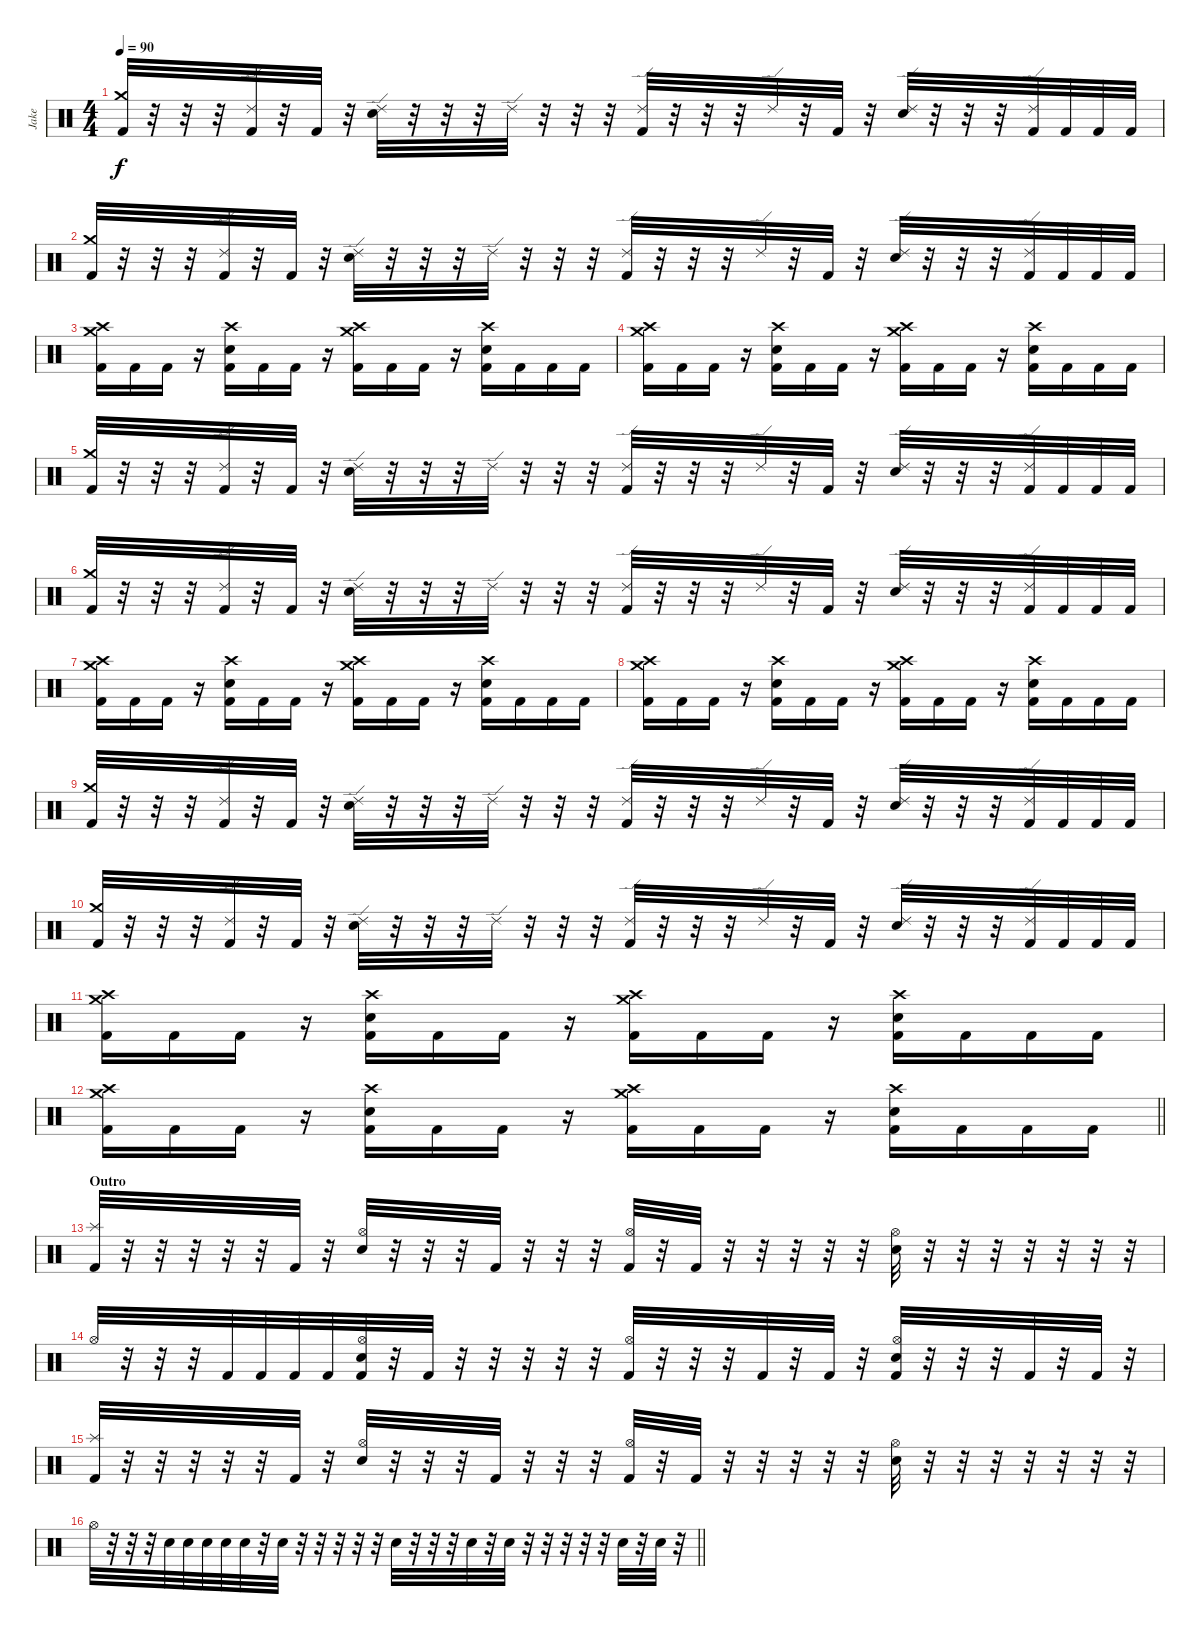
\track ("Jake" "Jake") {instrument percussion}
\staff {score}
\articulation defaults
\ts (4 4)
\tempo 90
\clef neutral
\ks c
("Crash medium (hit)" "Kick (hit) 2").32{dy f} r.32 r.32 r.32 ("Ride (edge) 2" "Kick (hit) 2").32 r.32 "Kick (hit) 2".32{beam Up} r.32 ("Ride (edge) 2" "Electric Snare (hit)").32 r.32 r.32 r.32 "Ride (edge) 2".32 r.32 r.32 r.32 ("Ride (edge) 2" "Kick (hit) 2").32 r.32 r.32 r.32 "Ride (edge) 2".32 r.32 "Kick (hit) 2".32{beam Up} r.32 ("Ride (edge) 2" "Electric Snare (hit)").32 r.32 r.32 r.32 ("Ride (edge) 2" "Kick (hit) 2").32{beam merge} "Kick (hit) 2".32{beam merge} "Kick (hit) 2".32{beam merge} "Kick (hit) 2".32 |
("Crash medium (hit)" "Kick (hit) 2").32 r.32 r.32 r.32 ("Ride (edge) 2" "Kick (hit) 2").32 r.32 "Kick (hit) 2".32{beam Up} r.32 ("Ride (edge) 2" "Electric Snare (hit)").32 r.32 r.32 r.32 "Ride (edge) 2".32 r.32 r.32 r.32 ("Ride (edge) 2" "Kick (hit) 2").32 r.32 r.32 r.32 "Ride (edge) 2".32 r.32 "Kick (hit) 2".32{beam Up} r.32 ("Ride (edge) 2" "Electric Snare (hit)").32 r.32 r.32 r.32 ("Ride (edge) 2" "Kick (hit) 2").32{beam merge} "Kick (hit) 2".32{beam merge} "Kick (hit) 2".32{beam merge} "Kick (hit) 2".32 |
("Crash medium (hit)" "Crash high (hit)" "Kick (hit) 2").16{beam merge} "Kick (hit) 2".16{beam merge} "Kick (hit) 2".16 r.16 ("Crash high (hit)" "Electric Snare (hit)" "Kick (hit) 2").16{beam merge} "Kick (hit) 2".16{beam merge} "Kick (hit) 2".16 r.16 ("Crash medium (hit)" "Crash high (hit)" "Kick (hit) 2").16{beam merge} "Kick (hit) 2".16{beam merge} "Kick (hit) 2".16 r.16 ("Crash high (hit)" "Electric Snare (hit)" "Kick (hit) 2").16{beam merge} "Kick (hit) 2".16{beam merge} "Kick (hit) 2".16{beam merge} "Kick (hit) 2".16 |
("Crash medium (hit)" "Crash high (hit)" "Kick (hit) 2").16{beam merge} "Kick (hit) 2".16{beam merge} "Kick (hit) 2".16 r.16 ("Crash high (hit)" "Electric Snare (hit)" "Kick (hit) 2").16{beam merge} "Kick (hit) 2".16{beam merge} "Kick (hit) 2".16 r.16 ("Crash medium (hit)" "Crash high (hit)" "Kick (hit) 2").16{beam merge} "Kick (hit) 2".16{beam merge} "Kick (hit) 2".16 r.16 ("Crash high (hit)" "Electric Snare (hit)" "Kick (hit) 2").16{beam merge} "Kick (hit) 2".16{beam merge} "Kick (hit) 2".16{beam merge} "Kick (hit) 2".16 |
("Crash medium (hit)" "Kick (hit) 2").32 r.32 r.32 r.32 ("Ride (edge) 2" "Kick (hit) 2").32 r.32 "Kick (hit) 2".32{beam Up} r.32 ("Ride (edge) 2" "Electric Snare (hit)").32 r.32 r.32 r.32 "Ride (edge) 2".32 r.32 r.32 r.32 ("Ride (edge) 2" "Kick (hit) 2").32 r.32 r.32 r.32 "Ride (edge) 2".32 r.32 "Kick (hit) 2".32{beam Up} r.32 ("Ride (edge) 2" "Electric Snare (hit)").32 r.32 r.32 r.32 ("Ride (edge) 2" "Kick (hit) 2").32{beam merge} "Kick (hit) 2".32{beam merge} "Kick (hit) 2".32{beam merge} "Kick (hit) 2".32 |
("Crash medium (hit)" "Kick (hit) 2").32 r.32 r.32 r.32 ("Ride (edge) 2" "Kick (hit) 2").32 r.32 "Kick (hit) 2".32{beam Up} r.32 ("Ride (edge) 2" "Electric Snare (hit)").32 r.32 r.32 r.32 "Ride (edge) 2".32 r.32 r.32 r.32 ("Ride (edge) 2" "Kick (hit) 2").32 r.32 r.32 r.32 "Ride (edge) 2".32 r.32 "Kick (hit) 2".32{beam Up} r.32 ("Ride (edge) 2" "Electric Snare (hit)").32 r.32 r.32 r.32 ("Ride (edge) 2" "Kick (hit) 2").32{beam merge} "Kick (hit) 2".32{beam merge} "Kick (hit) 2".32{beam merge} "Kick (hit) 2".32 |
("Crash medium (hit)" "Crash high (hit)" "Kick (hit) 2").16{beam merge} "Kick (hit) 2".16{beam merge} "Kick (hit) 2".16 r.16 ("Crash high (hit)" "Electric Snare (hit)" "Kick (hit) 2").16{beam merge} "Kick (hit) 2".16{beam merge} "Kick (hit) 2".16 r.16 ("Crash medium (hit)" "Crash high (hit)" "Kick (hit) 2").16{beam merge} "Kick (hit) 2".16{beam merge} "Kick (hit) 2".16 r.16 ("Crash high (hit)" "Electric Snare (hit)" "Kick (hit) 2").16{beam merge} "Kick (hit) 2".16{beam merge} "Kick (hit) 2".16{beam merge} "Kick (hit) 2".16 |
("Crash medium (hit)" "Crash high (hit)" "Kick (hit) 2").16{beam merge} "Kick (hit) 2".16{beam merge} "Kick (hit) 2".16 r.16 ("Crash high (hit)" "Electric Snare (hit)" "Kick (hit) 2").16{beam merge} "Kick (hit) 2".16{beam merge} "Kick (hit) 2".16 r.16 ("Crash medium (hit)" "Crash high (hit)" "Kick (hit) 2").16{beam merge} "Kick (hit) 2".16{beam merge} "Kick (hit) 2".16 r.16 ("Crash high (hit)" "Electric Snare (hit)" "Kick (hit) 2").16{beam merge} "Kick (hit) 2".16{beam merge} "Kick (hit) 2".16{beam merge} "Kick (hit) 2".16 |
("Crash medium (hit)" "Kick (hit) 2").32 r.32 r.32 r.32 ("Ride (edge) 2" "Kick (hit) 2").32 r.32 "Kick (hit) 2".32{beam Up} r.32 ("Ride (edge) 2" "Electric Snare (hit)").32 r.32 r.32 r.32 "Ride (edge) 2".32 r.32 r.32 r.32 ("Ride (edge) 2" "Kick (hit) 2").32 r.32 r.32 r.32 "Ride (edge) 2".32 r.32 "Kick (hit) 2".32{beam Up} r.32 ("Ride (edge) 2" "Electric Snare (hit)").32 r.32 r.32 r.32 ("Ride (edge) 2" "Kick (hit) 2").32{beam merge} "Kick (hit) 2".32{beam merge} "Kick (hit) 2".32{beam merge} "Kick (hit) 2".32 |
("Crash medium (hit)" "Kick (hit) 2").32 r.32 r.32 r.32 ("Ride (edge) 2" "Kick (hit) 2").32 r.32 "Kick (hit) 2".32{beam Up} r.32 ("Ride (edge) 2" "Electric Snare (hit)").32 r.32 r.32 r.32 "Ride (edge) 2".32 r.32 r.32 r.32 ("Ride (edge) 2" "Kick (hit) 2").32 r.32 r.32 r.32 "Ride (edge) 2".32 r.32 "Kick (hit) 2".32{beam Up} r.32 ("Ride (edge) 2" "Electric Snare (hit)").32 r.32 r.32 r.32 ("Ride (edge) 2" "Kick (hit) 2").32{beam merge} "Kick (hit) 2".32{beam merge} "Kick (hit) 2".32{beam merge} "Kick (hit) 2".32 |
("Crash medium (hit)" "Crash high (hit)" "Kick (hit) 2").16{beam merge} "Kick (hit) 2".16{beam merge} "Kick (hit) 2".16 r.16 ("Crash high (hit)" "Electric Snare (hit)" "Kick (hit) 2").16{beam merge} "Kick (hit) 2".16{beam merge} "Kick (hit) 2".16 r.16 ("Crash medium (hit)" "Crash high (hit)" "Kick (hit) 2").16{beam merge} "Kick (hit) 2".16{beam merge} "Kick (hit) 2".16 r.16 ("Crash high (hit)" "Electric Snare (hit)" "Kick (hit) 2").16{beam merge} "Kick (hit) 2".16{beam merge} "Kick (hit) 2".16{beam merge} "Kick (hit) 2".16 |
\barLineRight lightlight
("Crash medium (hit)" "Crash high (hit)" "Kick (hit) 2").16{beam merge} "Kick (hit) 2".16{beam merge} "Kick (hit) 2".16 r.16 ("Crash high (hit)" "Electric Snare (hit)" "Kick (hit) 2").16{beam merge} "Kick (hit) 2".16{beam merge} "Kick (hit) 2".16 r.16 ("Crash medium (hit)" "Crash high (hit)" "Kick (hit) 2").16{beam merge} "Kick (hit) 2".16{beam merge} "Kick (hit) 2".16 r.16 ("Crash high (hit)" "Electric Snare (hit)" "Kick (hit) 2").16{beam merge} "Kick (hit) 2".16{beam merge} "Kick (hit) 2".16{beam merge} "Kick (hit) 2".16 |
\section ("" "Outro")
("Splash (hit)" "Kick (hit) 2").32{beam Up} r.32 r.32 r.32 r.32 r.32 "Kick (hit) 2".32{beam Up} r.32 ("Hi-Hat (open)" "Electric Snare (hit)").32 r.32 r.32 r.32 "Kick (hit) 2".32{beam Up} r.32 r.32 r.32 ("Hi-Hat (open)" "Kick (hit) 2").32 r.32 "Kick (hit) 2".32{beam Up} r.32 r.32 r.32 r.32 r.32 ("Hi-Hat (open)" "Electric Snare (hit)").32 r.32 r.32 r.32 r.32 r.32 r.32 r.32 |
"Hi-Hat (open)".32 r.32 r.32 r.32 "Kick (hit) 2".32{beam Up beam merge} "Kick (hit) 2".32{beam Up beam merge} "Kick (hit) 2".32{beam Up beam merge} "Kick (hit) 2".32{beam Up beam merge} ("Hi-Hat (open)" "Electric Snare (hit)" "Kick (hit) 2").32 r.32 "Kick (hit) 2".32{beam Up} r.32 r.32 r.32 r.32 r.32 ("Hi-Hat (open)" "Kick (hit) 2").32 r.32 r.32 r.32 "Kick (hit) 2".32{beam Up} r.32 "Kick (hit) 2".32{beam Up} r.32 ("Hi-Hat (open)" "Electric Snare (hit)" "Kick (hit) 2").32 r.32 r.32 r.32 "Kick (hit) 2".32{beam Up} r.32 "Kick (hit) 2".32{beam Up} r.32 |
("Splash (hit)" "Kick (hit) 2").32{beam Up} r.32 r.32 r.32 r.32 r.32 "Kick (hit) 2".32{beam Up} r.32 ("Hi-Hat (open)" "Electric Snare (hit)").32 r.32 r.32 r.32 "Kick (hit) 2".32{beam Up} r.32 r.32 r.32 ("Hi-Hat (open)" "Kick (hit) 2").32 r.32 "Kick (hit) 2".32{beam Up} r.32 r.32 r.32 r.32 r.32 ("Hi-Hat (open)" "Electric Snare (hit)").32 r.32 r.32 r.32 r.32 r.32 r.32 r.32 |
\barLineRight lightlight "Hi-Hat (open)".32
r.32 r.32 r.32 "Electric Snare (hit)".32{beam merge} "Electric Snare (hit)".32{beam merge} "Electric Snare (hit)".32{beam merge} "Electric Snare (hit)".32{beam merge} "Electric Snare (hit)".32 r.32 "Electric Snare (hit)".32 r.32 r.32 r.32 r.32 r.32 "Electric Snare (hit)".32 r.32 r.32 r.32 "Electric Snare (hit)".32 r.32 "Electric Snare (hit)".32 r.32 r.32 r.32 r.32 r.32 "Electric Snare (hit)".32 r.32 "Electric Snare (hit)".32 r.32
